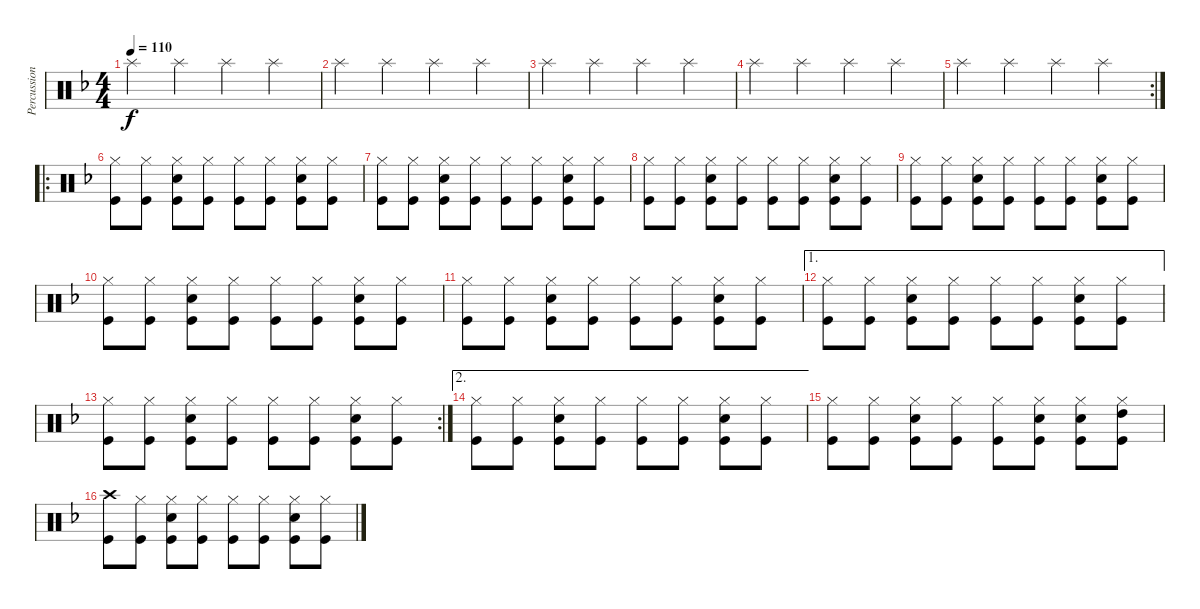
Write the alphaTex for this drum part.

\track ("Percussion" "Percussion") {instrument percussion}
\staff {score}
\articulation defaults
\ts (4 4)
\tempo 110
\clef neutral
\ks dminor "Splash (hit)".4{dy f} "Splash (hit)".4 "Splash (hit)".4 "Splash (hit)".4
|
"Splash (hit)".4 "Splash (hit)".4 "Splash (hit)".4 "Splash (hit)".4 |
"Splash (hit)".4 "Splash (hit)".4 "Splash (hit)".4 "Splash (hit)".4 |
"Splash (hit)".4 "Splash (hit)".4 "Splash (hit)".4 "Splash (hit)".4 |
\rc 2 "Splash (hit)".4 "Splash (hit)".4 "Splash (hit)".4 "Splash (hit)".4
|
\ro
("Hi-Hat (closed)" "Kick (hit)").8 ("Hi-Hat (closed)" "Kick (hit)").8 ("Hi-Hat (closed)" "Snare (hit) 2" "Kick (hit)").8 ("Hi-Hat (closed)" "Kick (hit)").8 ("Hi-Hat (closed)" "Kick (hit)").8 ("Hi-Hat (closed)" "Kick (hit)").8 ("Hi-Hat (closed)" "Snare (hit) 2" "Kick (hit)").8 ("Hi-Hat (closed)" "Kick (hit)").8 |
("Hi-Hat (closed)" "Kick (hit)").8 ("Hi-Hat (closed)" "Kick (hit)").8 ("Hi-Hat (closed)" "Snare (hit) 2" "Kick (hit)").8 ("Hi-Hat (closed)" "Kick (hit)").8 ("Hi-Hat (closed)" "Kick (hit)").8 ("Hi-Hat (closed)" "Kick (hit)").8 ("Hi-Hat (closed)" "Snare (hit) 2" "Kick (hit)").8 ("Hi-Hat (closed)" "Kick (hit)").8 |
("Hi-Hat (closed)" "Kick (hit)").8 ("Hi-Hat (closed)" "Kick (hit)").8 ("Hi-Hat (closed)" "Snare (hit) 2" "Kick (hit)").8 ("Hi-Hat (closed)" "Kick (hit)").8 ("Hi-Hat (closed)" "Kick (hit)").8 ("Hi-Hat (closed)" "Kick (hit)").8 ("Hi-Hat (closed)" "Snare (hit) 2" "Kick (hit)").8 ("Hi-Hat (closed)" "Kick (hit)").8 |
("Hi-Hat (closed)" "Kick (hit)").8 ("Hi-Hat (closed)" "Kick (hit)").8 ("Hi-Hat (closed)" "Snare (hit) 2" "Kick (hit)").8 ("Hi-Hat (closed)" "Kick (hit)").8 ("Hi-Hat (closed)" "Kick (hit)").8 ("Hi-Hat (closed)" "Kick (hit)").8 ("Hi-Hat (closed)" "Snare (hit) 2" "Kick (hit)").8 ("Hi-Hat (closed)" "Kick (hit)").8 |
("Hi-Hat (closed)" "Kick (hit)").8 ("Hi-Hat (closed)" "Kick (hit)").8 ("Hi-Hat (closed)" "Snare (hit) 2" "Kick (hit)").8 ("Hi-Hat (closed)" "Kick (hit)").8 ("Hi-Hat (closed)" "Kick (hit)").8 ("Hi-Hat (closed)" "Kick (hit)").8 ("Hi-Hat (closed)" "Snare (hit) 2" "Kick (hit)").8 ("Hi-Hat (closed)" "Kick (hit)").8 |
("Hi-Hat (closed)" "Kick (hit)").8 ("Hi-Hat (closed)" "Kick (hit)").8 ("Hi-Hat (closed)" "Snare (hit) 2" "Kick (hit)").8 ("Hi-Hat (closed)" "Kick (hit)").8 ("Hi-Hat (closed)" "Kick (hit)").8 ("Hi-Hat (closed)" "Kick (hit)").8 ("Hi-Hat (closed)" "Snare (hit) 2" "Kick (hit)").8 ("Hi-Hat (closed)" "Kick (hit)").8 |
\ae 1
("Hi-Hat (closed)" "Kick (hit)").8 ("Hi-Hat (closed)" "Kick (hit)").8 ("Hi-Hat (closed)" "Snare (hit) 2" "Kick (hit)").8 ("Hi-Hat (closed)" "Kick (hit)").8 ("Hi-Hat (closed)" "Kick (hit)").8 ("Hi-Hat (closed)" "Kick (hit)").8 ("Hi-Hat (closed)" "Snare (hit) 2" "Kick (hit)").8 ("Hi-Hat (closed)" "Kick (hit)").8 |
\rc 2
("Hi-Hat (closed)" "Kick (hit)").8 ("Hi-Hat (closed)" "Kick (hit)").8 ("Hi-Hat (closed)" "Snare (hit) 2" "Kick (hit)").8 ("Hi-Hat (closed)" "Kick (hit)").8 ("Hi-Hat (closed)" "Kick (hit)").8 ("Hi-Hat (closed)" "Kick (hit)").8 ("Hi-Hat (closed)" "Snare (hit) 2" "Kick (hit)").8 ("Hi-Hat (closed)" "Kick (hit)").8 |
\ae 2
("Hi-Hat (closed)" "Kick (hit)").8 ("Hi-Hat (closed)" "Kick (hit)").8 ("Hi-Hat (closed)" "Snare (hit) 2" "Kick (hit)").8 ("Hi-Hat (closed)" "Kick (hit)").8 ("Hi-Hat (closed)" "Kick (hit)").8 ("Hi-Hat (closed)" "Kick (hit)").8 ("Hi-Hat (closed)" "Snare (hit) 2" "Kick (hit)").8 ("Hi-Hat (closed)" "Kick (hit)").8 |
("Hi-Hat (closed)" "Kick (hit)").8 ("Hi-Hat (closed)" "Kick (hit)").8 ("Hi-Hat (closed)" "Snare (hit) 2" "Kick (hit)").8 ("Hi-Hat (closed)" "Kick (hit)").8 ("Hi-Hat (closed)" "Kick (hit)").8 ("Hi-Hat (closed)" "Snare (hit) 2" "Kick (hit)").8 ("Hi-Hat (closed)" "Snare (hit) 2" "Kick (hit)").8 ("Hi-Hat (closed)" "High Tom (hit)" "Kick (hit)").8 |
("Crash high (hit)" "Kick (hit)").8 ("Hi-Hat (closed)" "Kick (hit)").8 ("Hi-Hat (closed)" "Snare (hit) 2" "Kick (hit)").8 ("Hi-Hat (closed)" "Kick (hit)").8 ("Hi-Hat (closed)" "Kick (hit)").8 ("Hi-Hat (closed)" "Kick (hit)").8 ("Hi-Hat (closed)" "Snare (hit) 2" "Kick (hit)").8 ("Hi-Hat (closed)" "Kick (hit)").8
